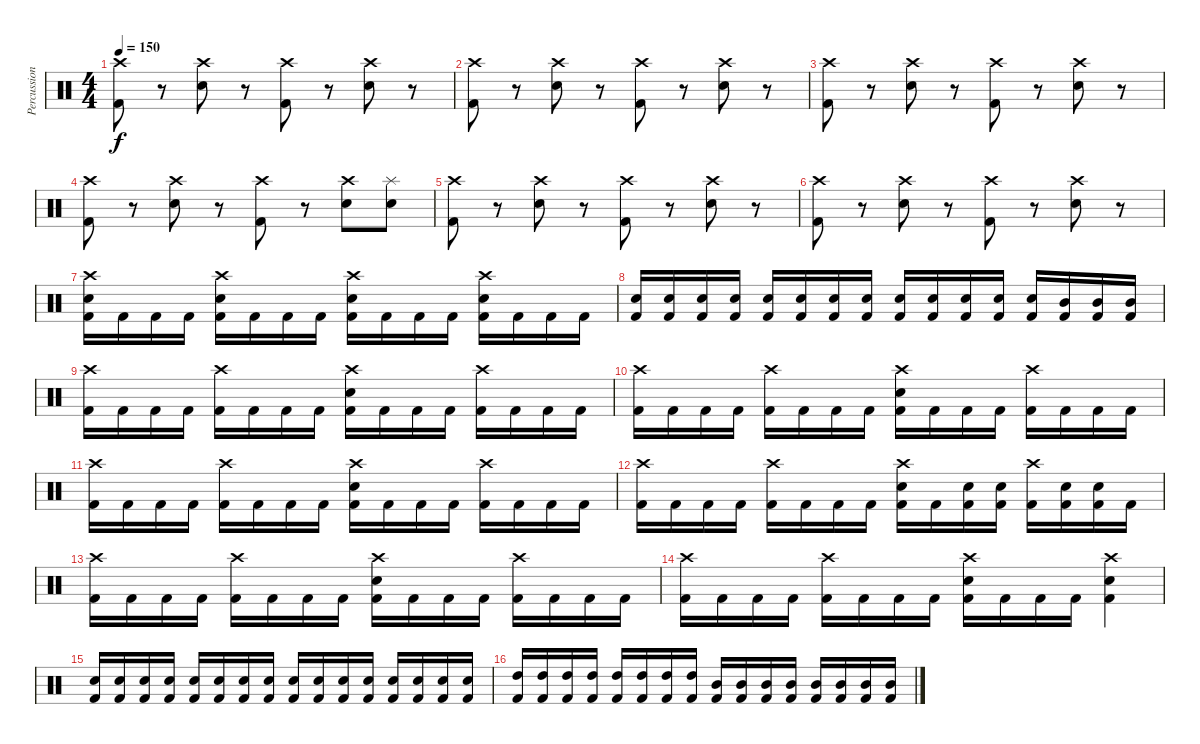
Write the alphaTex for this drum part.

\track ("Percussion" "Percussion") {instrument percussion}
\staff {score}
\articulation defaults
\ts (4 4)
\tempo 150
\clef neutral
\ks c
("Crash high (hit)" "Kick (hit) 2").8{dy f} r.8 ("Crash high (hit)" "Snare (hit) 2").8 r.8 ("Crash high (hit)" "Kick (hit) 2").8 r.8 ("Crash high (hit)" "Snare (hit) 2").8 r.8 |
("Crash high (hit)" "Kick (hit) 2").8 r.8 ("Crash high (hit)" "Snare (hit) 2").8 r.8 ("Crash high (hit)" "Kick (hit) 2").8 r.8 ("Crash high (hit)" "Snare (hit) 2").8 r.8 |
("Crash high (hit)" "Kick (hit) 2").8 r.8 ("Crash high (hit)" "Snare (hit) 2").8 r.8 ("Crash high (hit)" "Kick (hit) 2").8 r.8 ("Crash high (hit)" "Snare (hit) 2").8 r.8 |
("Crash high (hit)" "Kick (hit) 2").8 r.8 ("Crash high (hit)" "Snare (hit) 2").8 r.8 ("Crash high (hit)" "Kick (hit) 2").8 r.8 ("Crash high (hit)" "Snare (hit) 2").8 ("Splash (hit)" "Snare (hit) 2").8 |
("Crash high (hit)" "Kick (hit) 2").8 r.8 ("Crash high (hit)" "Snare (hit) 2").8 r.8 ("Crash high (hit)" "Kick (hit) 2").8 r.8 ("Crash high (hit)" "Snare (hit) 2").8 r.8 |
("Crash high (hit)" "Kick (hit) 2").8 r.8 ("Crash high (hit)" "Snare (hit) 2").8 r.8 ("Crash high (hit)" "Kick (hit) 2").8 r.8 ("Crash high (hit)" "Snare (hit) 2").8 r.8 |
("Crash high (hit)" "Snare (hit) 2" "Kick (hit) 2").16 "Kick (hit) 2".16 "Kick (hit) 2".16 "Kick (hit) 2".16 ("Crash high (hit)" "Snare (hit) 2" "Kick (hit) 2").16 "Kick (hit) 2".16 "Kick (hit) 2".16 "Kick (hit) 2".16 ("Crash high (hit)" "Snare (hit) 2" "Kick (hit) 2").16 "Kick (hit) 2".16 "Kick (hit) 2".16 "Kick (hit) 2".16 ("Crash high (hit)" "Snare (hit) 2" "Kick (hit) 2").16 "Kick (hit) 2".16 "Kick (hit) 2".16 "Kick (hit) 2".16 |
("Snare (hit) 2" "Kick (hit) 2").16 ("Snare (hit) 2" "Kick (hit) 2").16 ("Snare (hit) 2" "Kick (hit) 2").16 ("Snare (hit) 2" "Kick (hit) 2").16 ("Snare (hit) 2" "Kick (hit) 2").16 ("Snare (hit) 2" "Kick (hit) 2").16 ("Snare (hit) 2" "Kick (hit) 2").16 ("Snare (hit) 2" "Kick (hit) 2").16 ("Snare (hit) 2" "Kick (hit) 2").16 ("Snare (hit) 2" "Kick (hit) 2").16 ("Snare (hit) 2" "Kick (hit) 2").16 ("Snare (hit) 2" "Kick (hit) 2").16 ("Snare (hit) 2" "Kick (hit) 2").16 ("Mid Tom (hit)" "Kick (hit) 2").16 ("Mid Tom (hit)" "Kick (hit) 2").16 ("Mid Tom (hit)" "Kick (hit) 2").16 |
("Crash high (hit)" "Kick (hit) 2").16 "Kick (hit) 2".16 "Kick (hit) 2".16 "Kick (hit) 2".16 ("Crash high (hit)" "Kick (hit) 2").16 "Kick (hit) 2".16 "Kick (hit) 2".16 "Kick (hit) 2".16 ("Crash high (hit)" "Snare (hit) 2" "Kick (hit) 2").16 "Kick (hit) 2".16 "Kick (hit) 2".16 "Kick (hit) 2".16 ("Crash high (hit)" "Kick (hit) 2").16 "Kick (hit) 2".16 "Kick (hit) 2".16 "Kick (hit) 2".16 |
("Crash high (hit)" "Kick (hit) 2").16 "Kick (hit) 2".16 "Kick (hit) 2".16 "Kick (hit) 2".16 ("Crash high (hit)" "Kick (hit) 2").16 "Kick (hit) 2".16 "Kick (hit) 2".16 "Kick (hit) 2".16 ("Crash high (hit)" "Snare (hit) 2" "Kick (hit) 2").16 "Kick (hit) 2".16 "Kick (hit) 2".16 "Kick (hit) 2".16 ("Crash high (hit)" "Kick (hit) 2").16 "Kick (hit) 2".16 "Kick (hit) 2".16 "Kick (hit) 2".16 |
("Crash high (hit)" "Kick (hit) 2").16 "Kick (hit) 2".16 "Kick (hit) 2".16 "Kick (hit) 2".16 ("Crash high (hit)" "Kick (hit) 2").16 "Kick (hit) 2".16 "Kick (hit) 2".16 "Kick (hit) 2".16 ("Crash high (hit)" "Snare (hit) 2" "Kick (hit) 2").16 "Kick (hit) 2".16 "Kick (hit) 2".16 "Kick (hit) 2".16 ("Crash high (hit)" "Kick (hit) 2").16 "Kick (hit) 2".16 "Kick (hit) 2".16 "Kick (hit) 2".16 |
("Crash high (hit)" "Kick (hit) 2").16 "Kick (hit) 2".16 "Kick (hit) 2".16 "Kick (hit) 2".16 ("Crash high (hit)" "Kick (hit) 2").16 "Kick (hit) 2".16 "Kick (hit) 2".16 "Kick (hit) 2".16 ("Crash high (hit)" "Snare (hit) 2" "Kick (hit) 2").16 "Kick (hit) 2".16 ("Snare (hit) 2" "Kick (hit) 2").16 ("Snare (hit) 2" "Kick (hit) 2").16 ("Crash high (hit)" "Kick (hit) 2").16 ("Snare (hit) 2" "Kick (hit) 2").16 ("Snare (hit) 2" "Kick (hit) 2").16 "Kick (hit) 2".16 |
("Crash high (hit)" "Kick (hit) 2").16 "Kick (hit) 2".16 "Kick (hit) 2".16 "Kick (hit) 2".16 ("Crash high (hit)" "Kick (hit) 2").16 "Kick (hit) 2".16 "Kick (hit) 2".16 "Kick (hit) 2".16 ("Crash high (hit)" "Snare (hit) 2" "Kick (hit) 2").16 "Kick (hit) 2".16 "Kick (hit) 2".16 "Kick (hit) 2".16 ("Crash high (hit)" "Kick (hit) 2").16 "Kick (hit) 2".16 "Kick (hit) 2".16 "Kick (hit) 2".16 |
("Crash high (hit)" "Kick (hit) 2").16 "Kick (hit) 2".16 "Kick (hit) 2".16 "Kick (hit) 2".16 ("Crash high (hit)" "Kick (hit) 2").16 "Kick (hit) 2".16 "Kick (hit) 2".16 "Kick (hit) 2".16 ("Crash high (hit)" "Snare (hit) 2" "Kick (hit) 2").16 "Kick (hit) 2".16 "Kick (hit) 2".16 "Kick (hit) 2".16 ("Crash high (hit)" "Snare (hit) 2" "Kick (hit) 2").4 |
("Snare (hit) 2" "Kick (hit) 2").16 ("Snare (hit) 2" "Kick (hit) 2").16 ("Snare (hit) 2" "Kick (hit) 2").16 ("Snare (hit) 2" "Kick (hit) 2").16 ("Snare (hit) 2" "Kick (hit) 2").16 ("Snare (hit) 2" "Kick (hit) 2").16 ("Snare (hit) 2" "Kick (hit) 2").16 ("Snare (hit) 2" "Kick (hit) 2").16 ("Snare (hit) 2" "Kick (hit) 2").16 ("Snare (hit) 2" "Kick (hit) 2").16 ("Snare (hit) 2" "Kick (hit) 2").16 ("Snare (hit) 2" "Kick (hit) 2").16 ("Snare (hit) 2" "Kick (hit) 2").16 ("Snare (hit) 2" "Kick (hit) 2").16 ("Snare (hit) 2" "Kick (hit) 2").16 ("Snare (hit) 2" "Kick (hit) 2").16 |
("High Tom (hit)" "Kick (hit) 2").16 ("High Tom (hit)" "Kick (hit) 2").16 ("High Tom (hit)" "Kick (hit) 2").16 ("High Tom (hit)" "Kick (hit) 2").16 ("High Tom (hit)" "Kick (hit) 2").16 ("High Tom (hit)" "Kick (hit) 2").16 ("High Tom (hit)" "Kick (hit) 2").16 ("High Tom (hit)" "Kick (hit) 2").16 ("Mid Tom (hit)" "Kick (hit) 2").16 ("Mid Tom (hit)" "Kick (hit) 2").16 ("Mid Tom (hit)" "Kick (hit) 2").16 ("Mid Tom (hit)" "Kick (hit) 2").16 ("Mid Tom (hit)" "Kick (hit) 2").16 ("Mid Tom (hit)" "Kick (hit) 2").16 ("Mid Tom (hit)" "Kick (hit) 2").16 ("Mid Tom (hit)" "Kick (hit) 2").16
